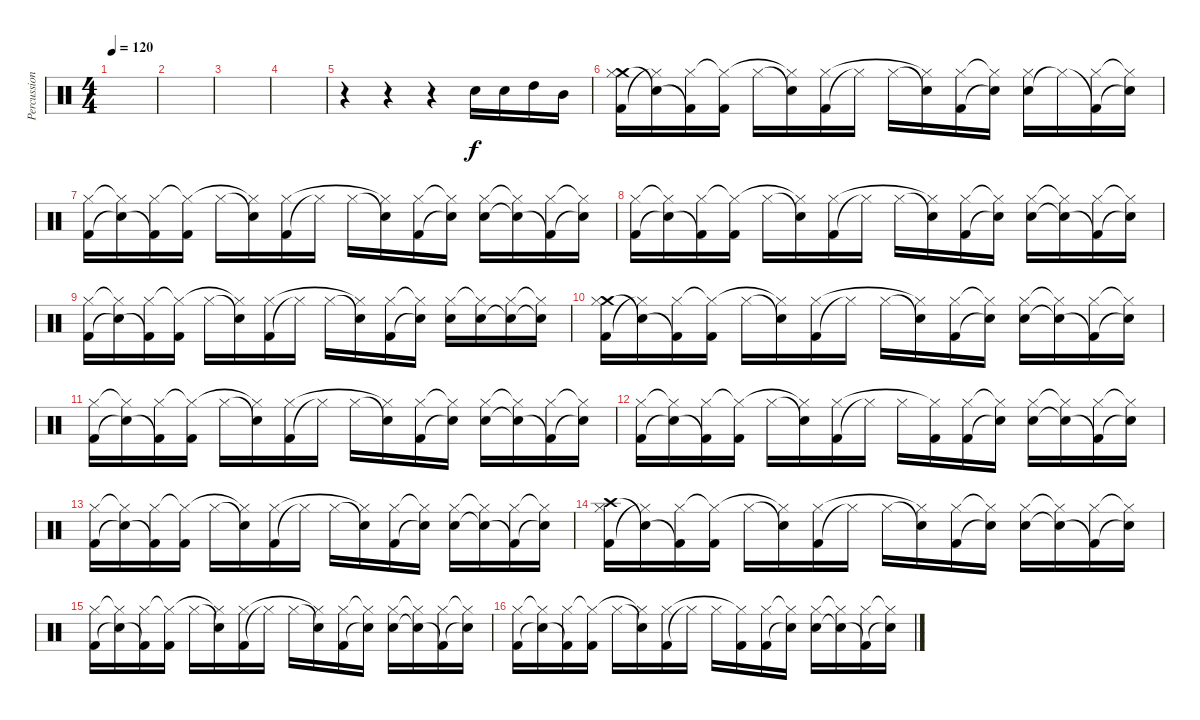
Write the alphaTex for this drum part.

\track ("Percussions" "Percussion") {instrument percussion}
\staff {score}
\articulation defaults
\ts (4 4)
\tempo 120
\clef neutral
\ks c
|
|
|
|
r.4 r.4 r.4 "Electric Snare (hit)".16 "Electric Snare (hit)".16 "High Tom (hit)".16 "Mid Tom (hit)".16 |
("Crash medium (hit)" "Kick (hit) 2" "Hi-Hat (closed)").16 ("Snare (hit)"{t} "Hi-Hat (closed)"{t}).16 ("Kick (hit) 2"{t} "Hi-Hat (closed)").16 ("Kick (hit) 2" "Hi-Hat (closed)"{t}).16 "Hi-Hat (closed)".16 ("Snare (hit)"{t} "Hi-Hat (closed)"{t}).16 ("Kick (hit) 2" "Hi-Hat (closed)").16 "Hi-Hat (closed)"{t}.16 "Hi-Hat (closed)".16 ("Snare (hit)"{t} "Hi-Hat (closed)"{t}).16 ("Kick (hit) 2" "Hi-Hat (closed)").16 ("Snare (hit)"{t} "Hi-Hat (closed)"{t}).16 ("Electric Snare (hit)" "Hi-Hat (closed)").16 "Hi-Hat (closed)"{t}.16 ("Kick (hit) 2"{t} "Hi-Hat (closed)").16 ("Snare (hit)"{t} "Hi-Hat (closed)"{t}).16 |
("Kick (hit) 2" "Hi-Hat (closed)").16 ("Snare (hit)"{t} "Hi-Hat (closed)"{t}).16 ("Kick (hit) 2"{t} "Hi-Hat (closed)").16 ("Kick (hit) 2" "Hi-Hat (closed)"{t}).16 "Hi-Hat (closed)".16 ("Snare (hit)"{t} "Hi-Hat (closed)"{t}).16 ("Kick (hit) 2" "Hi-Hat (closed)").16 "Hi-Hat (closed)"{t}.16 "Hi-Hat (closed)".16 ("Snare (hit)"{t} "Hi-Hat (closed)"{t}).16 ("Kick (hit) 2" "Hi-Hat (closed)").16 ("Snare (hit)"{t} "Hi-Hat (closed)"{t}).16 ("Electric Snare (hit)" "Hi-Hat (closed)").16 ("Snare (hit)"{t} "Hi-Hat (closed)"{t}).16 ("Kick (hit) 2"{t} "Hi-Hat (closed)").16 ("Snare (hit)"{t} "Hi-Hat (closed)"{t}).16 |
("Kick (hit) 2" "Hi-Hat (closed)").16 ("Snare (hit)"{t} "Hi-Hat (closed)"{t}).16 ("Kick (hit) 2"{t} "Hi-Hat (closed)").16 ("Kick (hit) 2" "Hi-Hat (closed)"{t}).16 "Hi-Hat (closed)".16 ("Snare (hit)"{t} "Hi-Hat (closed)"{t}).16 ("Kick (hit) 2" "Hi-Hat (closed)").16 "Hi-Hat (closed)"{t}.16 "Hi-Hat (closed)".16 ("Snare (hit)"{t} "Hi-Hat (closed)"{t}).16 ("Kick (hit) 2" "Hi-Hat (closed)").16 ("Snare (hit)"{t} "Hi-Hat (closed)"{t}).16 ("Electric Snare (hit)" "Hi-Hat (closed)").16 ("Snare (hit)"{t} "Hi-Hat (closed)"{t}).16 ("Kick (hit) 2"{t} "Hi-Hat (closed)").16 ("Snare (hit)"{t} "Hi-Hat (closed)"{t}).16 |
("Kick (hit) 2" "Hi-Hat (closed)").16 ("Snare (hit)"{t} "Hi-Hat (closed)"{t}).16 ("Kick (hit) 2"{t} "Hi-Hat (closed)").16 ("Kick (hit) 2" "Hi-Hat (closed)"{t}).16 "Hi-Hat (closed)".16 ("Snare (hit)"{t} "Hi-Hat (closed)"{t}).16 ("Kick (hit) 2" "Hi-Hat (closed)").16 "Hi-Hat (closed)"{t}.16 "Hi-Hat (closed)".16 ("Snare (hit)"{t} "Hi-Hat (closed)"{t}).16 ("Kick (hit) 2" "Hi-Hat (closed)").16 ("Snare (hit)"{t} "Hi-Hat (closed)"{t}).16 ("Electric Snare (hit)" "Hi-Hat (closed)").16 ("Electric Snare (hit)" "Hi-Hat (closed)"{t}).16 ("Electric Snare (hit)"{t} "Hi-Hat (closed)").16 ("Snare (hit)"{t} "Hi-Hat (closed)"{t}).16 |
("Crash medium (hit)" "Kick (hit) 2" "Hi-Hat (closed)").16 ("Snare (hit)"{t} "Hi-Hat (closed)"{t}).16 ("Kick (hit) 2"{t} "Hi-Hat (closed)").16 ("Kick (hit) 2" "Hi-Hat (closed)"{t}).16 "Hi-Hat (closed)".16 ("Snare (hit)"{t} "Hi-Hat (closed)"{t}).16 ("Kick (hit) 2" "Hi-Hat (closed)").16 "Hi-Hat (closed)"{t}.16 "Hi-Hat (closed)".16 ("Snare (hit)"{t} "Hi-Hat (closed)"{t}).16 ("Kick (hit) 2" "Hi-Hat (closed)").16 ("Snare (hit)"{t} "Hi-Hat (closed)"{t}).16 ("Electric Snare (hit)" "Hi-Hat (closed)").16 ("Snare (hit)"{t} "Hi-Hat (closed)"{t}).16 ("Kick (hit) 2"{t} "Hi-Hat (closed)").16 ("Snare (hit)"{t} "Hi-Hat (closed)"{t}).16 |
("Kick (hit) 2" "Hi-Hat (closed)").16 ("Snare (hit)"{t} "Hi-Hat (closed)"{t}).16 ("Kick (hit) 2"{t} "Hi-Hat (closed)").16 ("Kick (hit) 2" "Hi-Hat (closed)"{t}).16 "Hi-Hat (closed)".16 ("Snare (hit)"{t} "Hi-Hat (closed)"{t}).16 ("Kick (hit) 2" "Hi-Hat (closed)").16 "Hi-Hat (closed)"{t}.16 "Hi-Hat (closed)".16 ("Snare (hit)"{t} "Hi-Hat (closed)"{t}).16 ("Kick (hit) 2" "Hi-Hat (closed)").16 ("Snare (hit)"{t} "Hi-Hat (closed)"{t}).16 ("Electric Snare (hit)" "Hi-Hat (closed)").16 ("Snare (hit)"{t} "Hi-Hat (closed)"{t}).16 ("Kick (hit) 2"{t} "Hi-Hat (closed)").16 ("Snare (hit)"{t} "Hi-Hat (closed)"{t}).16 |
("Kick (hit) 2" "Hi-Hat (closed)").16 ("Snare (hit)"{t} "Hi-Hat (closed)"{t}).16 ("Kick (hit) 2"{t} "Hi-Hat (closed)").16 ("Kick (hit) 2" "Hi-Hat (closed)"{t}).16 "Hi-Hat (closed)".16 ("Snare (hit)"{t} "Hi-Hat (closed)"{t}).16 ("Kick (hit) 2" "Hi-Hat (closed)").16 "Hi-Hat (closed)"{t}.16 "Hi-Hat (closed)".16 ("Kick (hit) 2" "Hi-Hat (closed)"{t}).16 ("Kick (hit) 2" "Hi-Hat (closed)").16 ("Snare (hit)"{t} "Hi-Hat (closed)"{t}).16 ("Electric Snare (hit)" "Hi-Hat (closed)").16 ("Snare (hit)"{t} "Hi-Hat (closed)"{t}).16 ("Kick (hit) 2"{t} "Hi-Hat (closed)").16 ("Snare (hit)"{t} "Hi-Hat (closed)"{t}).16 |
("Kick (hit) 2" "Hi-Hat (closed)").16 ("Snare (hit)"{t} "Hi-Hat (closed)"{t}).16 ("Kick (hit) 2"{t} "Hi-Hat (closed)").16 ("Kick (hit) 2" "Hi-Hat (closed)"{t}).16 "Hi-Hat (closed)".16 ("Snare (hit)"{t} "Hi-Hat (closed)"{t}).16 ("Kick (hit) 2" "Hi-Hat (closed)").16 "Hi-Hat (closed)"{t}.16 "Hi-Hat (closed)".16 ("Snare (hit)"{t} "Hi-Hat (closed)"{t}).16 ("Kick (hit) 2" "Hi-Hat (closed)").16 ("Snare (hit)"{t} "Hi-Hat (closed)"{t}).16 ("Electric Snare (hit)" "Hi-Hat (closed)").16 ("Snare (hit)"{t} "Hi-Hat (closed)"{t}).16 ("Kick (hit) 2"{t} "Hi-Hat (closed)").16 ("Snare (hit)"{t} "Hi-Hat (closed)"{t}).16 |
("Crash high (hit)" "Kick (hit) 2" "Hi-Hat (closed)").16 ("Snare (hit)"{t} "Hi-Hat (closed)"{t}).16 ("Kick (hit) 2"{t} "Hi-Hat (closed)").16 ("Kick (hit) 2" "Hi-Hat (closed)"{t}).16 "Hi-Hat (closed)".16 ("Snare (hit)"{t} "Hi-Hat (closed)"{t}).16 ("Kick (hit) 2" "Hi-Hat (closed)").16 "Hi-Hat (closed)"{t}.16 "Hi-Hat (closed)".16 ("Snare (hit)"{t} "Hi-Hat (closed)"{t}).16 ("Kick (hit) 2" "Hi-Hat (closed)").16 ("Snare (hit)"{t} "Hi-Hat (closed)"{t}).16 ("Electric Snare (hit)" "Hi-Hat (closed)").16 ("Snare (hit)"{t} "Hi-Hat (closed)"{t}).16 ("Kick (hit) 2"{t} "Hi-Hat (closed)").16 ("Snare (hit)"{t} "Hi-Hat (closed)"{t}).16 |
("Kick (hit) 2" "Hi-Hat (closed)").16 ("Snare (hit)"{t} "Hi-Hat (closed)"{t}).16 ("Kick (hit) 2"{t} "Hi-Hat (closed)").16 ("Kick (hit) 2" "Hi-Hat (closed)"{t}).16 "Hi-Hat (closed)".16 ("Snare (hit)"{t} "Hi-Hat (closed)"{t}).16 ("Kick (hit) 2" "Hi-Hat (closed)").16 "Hi-Hat (closed)"{t}.16 "Hi-Hat (closed)".16 ("Snare (hit)"{t} "Hi-Hat (closed)"{t}).16 ("Kick (hit) 2" "Hi-Hat (closed)").16 ("Snare (hit)"{t} "Hi-Hat (closed)"{t}).16 ("Electric Snare (hit)" "Hi-Hat (closed)").16 ("Snare (hit)"{t} "Hi-Hat (closed)"{t}).16 ("Kick (hit) 2"{t} "Hi-Hat (closed)").16 ("Snare (hit)"{t} "Hi-Hat (closed)"{t}).16 |
("Kick (hit) 2" "Hi-Hat (closed)").16 ("Snare (hit)"{t} "Hi-Hat (closed)"{t}).16 ("Kick (hit) 2"{t} "Hi-Hat (closed)").16 ("Kick (hit) 2" "Hi-Hat (closed)"{t}).16 "Hi-Hat (closed)".16 ("Snare (hit)"{t} "Hi-Hat (closed)"{t}).16 ("Kick (hit) 2" "Hi-Hat (closed)").16 "Hi-Hat (closed)"{t}.16 "Hi-Hat (closed)".16 ("Kick (hit) 2" "Hi-Hat (closed)"{t}).16 ("Kick (hit) 2" "Hi-Hat (closed)").16 ("Snare (hit)"{t} "Hi-Hat (closed)"{t}).16 ("Electric Snare (hit)" "Hi-Hat (closed)").16 ("Snare (hit)"{t} "Hi-Hat (closed)"{t}).16 ("Kick (hit) 2"{t} "Hi-Hat (closed)").16 ("Snare (hit)"{t} "Hi-Hat (closed)"{t}).16
